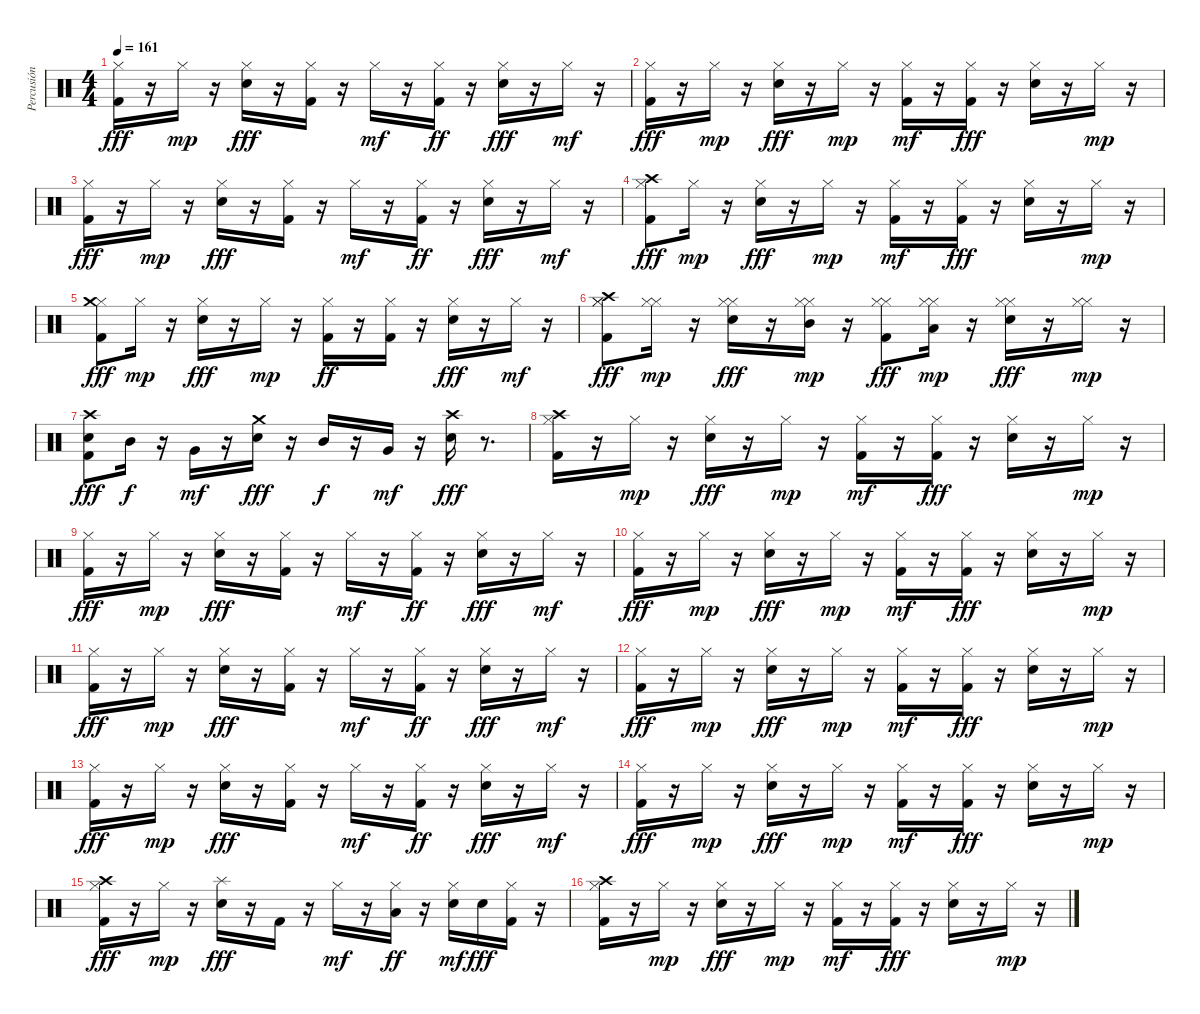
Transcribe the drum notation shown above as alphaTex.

\track ("Percusión" "Percusión") {instrument percussion}
\staff {score}
\articulation defaults
\ts (4 4)
\tempo 161
\clef neutral
\ks c
("Hi-Hat (closed)" "Kick (hit) 2").16{dy fff} r.16 "Hi-Hat (closed)".16{dy mp} r.16 ("Hi-Hat (closed)" "Snare (hit) 2").16{dy fff} r.16 ("Hi-Hat (closed)" "Kick (hit) 2").16 r.16 "Hi-Hat (closed)".16{dy mf} r.16 ("Hi-Hat (closed)" "Kick (hit) 2").16{dy ff} r.16 ("Hi-Hat (closed)" "Snare (hit) 2").16{dy fff} r.16 "Hi-Hat (closed)".16{dy mf} r.16 |
("Hi-Hat (closed)" "Kick (hit) 2").16{dy fff} r.16 "Hi-Hat (closed)".16{dy mp} r.16 ("Hi-Hat (closed)" "Snare (hit) 2").16{dy fff} r.16 "Hi-Hat (closed)".16{dy mp} r.16 ("Hi-Hat (closed)" "Kick (hit) 2").16{dy mf} r.16 ("Hi-Hat (closed)" "Kick (hit) 2").16{dy fff} r.16 ("Hi-Hat (closed)" "Snare (hit) 2").16 r.16 "Hi-Hat (closed)".16{dy mp} r.16 |
("Hi-Hat (closed)" "Kick (hit) 2").16{dy fff} r.16 "Hi-Hat (closed)".16{dy mp} r.16 ("Hi-Hat (closed)" "Snare (hit) 2").16{dy fff} r.16 ("Hi-Hat (closed)" "Kick (hit) 2").16 r.16 "Hi-Hat (closed)".16{dy mf} r.16 ("Hi-Hat (closed)" "Kick (hit) 2").16{dy ff} r.16 ("Hi-Hat (closed)" "Snare (hit) 2").16{dy fff} r.16 "Hi-Hat (closed)".16{dy mf} r.16 |
("Hi-Hat (closed)" "Crash high (hit)" "Kick (hit) 2").8{dy fff} "Hi-Hat (closed)".16{dy mp} r.16 ("Hi-Hat (closed)" "Snare (hit) 2").16{dy fff} r.16 "Hi-Hat (closed)".16{dy mp} r.16 ("Hi-Hat (closed)" "Kick (hit) 2").16{dy mf} r.16 ("Hi-Hat (closed)" "Kick (hit) 2").16{dy fff} r.16 ("Hi-Hat (closed)" "Snare (hit) 2").16 r.16 "Hi-Hat (closed)".16{dy mp} r.16 |
("Hi-Hat (closed)" "Crash medium (hit)" "Kick (hit) 2").8{dy fff} "Hi-Hat (closed)".16{dy mp} r.16 ("Hi-Hat (closed)" "Snare (hit) 2").16{dy fff} r.16 "Hi-Hat (closed)".16{dy mp} r.16 ("Hi-Hat (closed)" "Kick (hit) 2").16{dy ff} r.16 ("Hi-Hat (closed)" "Kick (hit) 2").16 r.16 ("Hi-Hat (closed)" "Snare (hit) 2").16{dy fff} r.16 "Hi-Hat (closed)".16{dy mf} r.16 |
("Hi-Hat (closed)" "Hi-Hat (closed)" "Crash high (hit)" "Kick (hit) 2").8{dy fff} ("Hi-Hat (closed)" "Hi-Hat (closed)").16{dy mp} r.16 ("Hi-Hat (closed)" "Hi-Hat (closed)" "Snare (hit) 2").16{dy fff} r.16 ("Mid Tom (hit)" "Hi-Hat (closed)" "Hi-Hat (closed)").16{dy mp} r.16 ("Hi-Hat (closed)" "Hi-Hat (closed)" "Kick (hit) 2").8{dy fff} ("Low Tom (hit)" "Hi-Hat (closed)" "Hi-Hat (closed)").16{dy mp} r.16 ("Hi-Hat (closed)" "Hi-Hat (closed)" "Snare (hit) 2").16{dy fff} r.16 ("Hi-Hat (closed)" "Hi-Hat (closed)").16{dy mp} r.16 |
("Crash high (hit)" "Kick (hit) 2" "Snare (hit) 2").8{dy fff} "Mid Tom (hit)".16{dy f} r.16 "Very Low Tom (hit)".16{dy mf} r.16 ("Crash medium (hit)" "Snare (hit) 2").16{dy fff} r.16 "Mid Tom (hit)".16{dy f} r.16 "Very Low Tom (hit)".16{dy mf} r.16 ("Crash high (hit)" "Snare (hit) 2").16{dy fff} r.8{d} |
("Hi-Hat (closed)" "Crash high (hit)" "Kick (hit) 2").16 r.16 "Hi-Hat (closed)".16{dy mp} r.16 ("Hi-Hat (closed)" "Snare (hit) 2").16{dy fff} r.16 "Hi-Hat (closed)".16{dy mp} r.16 ("Hi-Hat (closed)" "Kick (hit) 2").16{dy mf} r.16 ("Hi-Hat (closed)" "Kick (hit) 2").16{dy fff} r.16 ("Hi-Hat (closed)" "Snare (hit) 2").16 r.16 "Hi-Hat (closed)".16{dy mp} r.16 |
("Hi-Hat (closed)" "Kick (hit) 2").16{dy fff} r.16 "Hi-Hat (closed)".16{dy mp} r.16 ("Hi-Hat (closed)" "Snare (hit) 2").16{dy fff} r.16 ("Hi-Hat (closed)" "Kick (hit) 2").16 r.16 "Hi-Hat (closed)".16{dy mf} r.16 ("Hi-Hat (closed)" "Kick (hit) 2").16{dy ff} r.16 ("Hi-Hat (closed)" "Snare (hit) 2").16{dy fff} r.16 "Hi-Hat (closed)".16{dy mf} r.16 |
("Hi-Hat (closed)" "Kick (hit) 2").16{dy fff} r.16 "Hi-Hat (closed)".16{dy mp} r.16 ("Hi-Hat (closed)" "Snare (hit) 2").16{dy fff} r.16 "Hi-Hat (closed)".16{dy mp} r.16 ("Hi-Hat (closed)" "Kick (hit) 2").16{dy mf} r.16 ("Hi-Hat (closed)" "Kick (hit) 2").16{dy fff} r.16 ("Hi-Hat (closed)" "Snare (hit) 2").16 r.16 "Hi-Hat (closed)".16{dy mp} r.16 |
("Hi-Hat (closed)" "Kick (hit) 2").16{dy fff} r.16 "Hi-Hat (closed)".16{dy mp} r.16 ("Hi-Hat (closed)" "Snare (hit) 2").16{dy fff} r.16 ("Hi-Hat (closed)" "Kick (hit) 2").16 r.16 "Hi-Hat (closed)".16{dy mf} r.16 ("Hi-Hat (closed)" "Kick (hit) 2").16{dy ff} r.16 ("Hi-Hat (closed)" "Snare (hit) 2").16{dy fff} r.16 "Hi-Hat (closed)".16{dy mf} r.16 |
("Hi-Hat (closed)" "Kick (hit) 2").16{dy fff} r.16 "Hi-Hat (closed)".16{dy mp} r.16 ("Hi-Hat (closed)" "Snare (hit) 2").16{dy fff} r.16 "Hi-Hat (closed)".16{dy mp} r.16 ("Hi-Hat (closed)" "Kick (hit) 2").16{dy mf} r.16 ("Hi-Hat (closed)" "Kick (hit) 2").16{dy fff} r.16 ("Hi-Hat (closed)" "Snare (hit) 2").16 r.16 "Hi-Hat (closed)".16{dy mp} r.16 |
("Hi-Hat (closed)" "Kick (hit) 2").16{dy fff} r.16 "Hi-Hat (closed)".16{dy mp} r.16 ("Hi-Hat (closed)" "Snare (hit) 2").16{dy fff} r.16 ("Hi-Hat (closed)" "Kick (hit) 2").16 r.16 "Hi-Hat (closed)".16{dy mf} r.16 ("Hi-Hat (closed)" "Kick (hit) 2").16{dy ff} r.16 ("Hi-Hat (closed)" "Snare (hit) 2").16{dy fff} r.16 "Hi-Hat (closed)".16{dy mf} r.16 |
("Hi-Hat (closed)" "Kick (hit) 2").16{dy fff} r.16 "Hi-Hat (closed)".16{dy mp} r.16 ("Hi-Hat (closed)" "Snare (hit) 2").16{dy fff} r.16 "Hi-Hat (closed)".16{dy mp} r.16 ("Hi-Hat (closed)" "Kick (hit) 2").16{dy mf} r.16 ("Hi-Hat (closed)" "Kick (hit) 2").16{dy fff} r.16 ("Hi-Hat (closed)" "Snare (hit) 2").16 r.16 "Hi-Hat (closed)".16{dy mp} r.16 |
("Hi-Hat (closed)" "Crash high (hit)" "Kick (hit) 2").16{dy fff} r.16 "Hi-Hat (closed)".16{dy mp} r.16 ("Splash (hit)" "Snare (hit) 2").16{dy fff} r.16 "Kick (hit) 2".16 r.16 "Hi-Hat (closed)".16{dy mf} r.16 ("Hi-Hat (closed)" "Low Tom (hit)").16{dy ff} r.16 ("Hi-Hat (closed)" "Snare (hit) 2").16{dy mf} "Snare (hit) 2".16{dy fff} ("Hi-Hat (closed)" "Kick (hit) 2").16 r.16 |
("Hi-Hat (closed)" "Crash high (hit)" "Kick (hit) 2").16 r.16 "Hi-Hat (closed)".16{dy mp} r.16 ("Hi-Hat (closed)" "Snare (hit) 2").16{dy fff} r.16 "Hi-Hat (closed)".16{dy mp} r.16 ("Hi-Hat (closed)" "Kick (hit) 2").16{dy mf} r.16 ("Hi-Hat (closed)" "Kick (hit) 2").16{dy fff} r.16 ("Hi-Hat (closed)" "Snare (hit) 2").16 r.16 "Hi-Hat (closed)".16{dy mp} r.16
